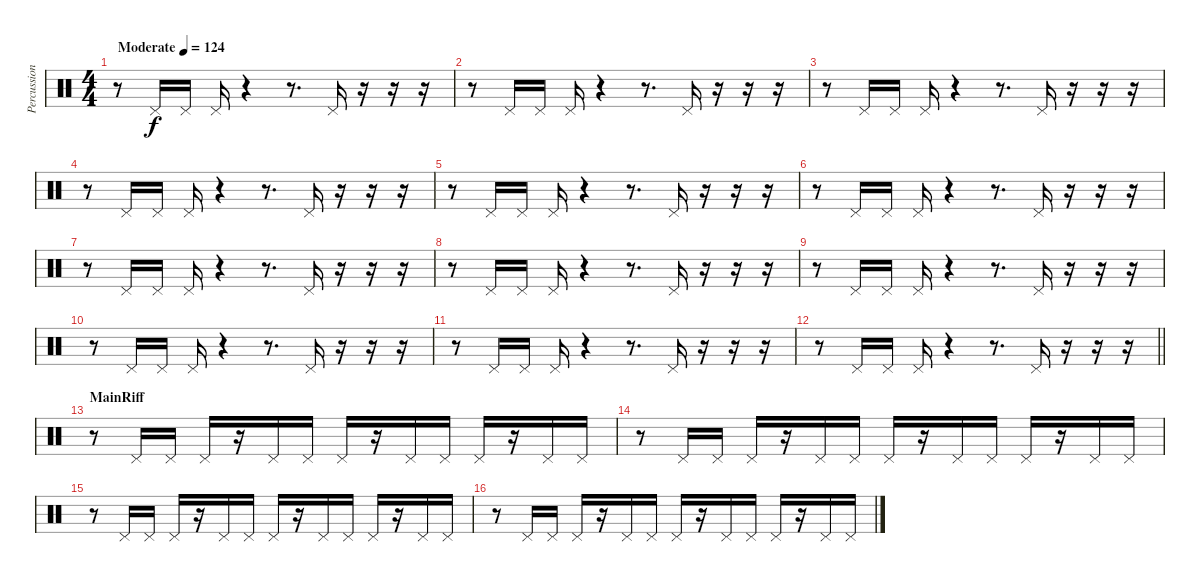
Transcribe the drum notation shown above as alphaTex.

\track ("Percussion" "Percussion") {instrument percussion}
\staff {score}
\articulation defaults
\ts (4 4)
\tempo (124 "Moderate")
\clef neutral
\ks c
r.8{dy f} "Pedal Hi-Hat (hit)".16 "Pedal Hi-Hat (hit)".16 "Pedal Hi-Hat (hit)".16 r.4 r.8{d} "Pedal Hi-Hat (hit)".16 r.16 r.16 r.16 |
r.8 "Pedal Hi-Hat (hit)".16 "Pedal Hi-Hat (hit)".16 "Pedal Hi-Hat (hit)".16 r.4 r.8{d} "Pedal Hi-Hat (hit)".16 r.16 r.16 r.16 |
r.8 "Pedal Hi-Hat (hit)".16 "Pedal Hi-Hat (hit)".16 "Pedal Hi-Hat (hit)".16 r.4 r.8{d} "Pedal Hi-Hat (hit)".16 r.16 r.16 r.16 |
r.8 "Pedal Hi-Hat (hit)".16 "Pedal Hi-Hat (hit)".16 "Pedal Hi-Hat (hit)".16 r.4 r.8{d} "Pedal Hi-Hat (hit)".16 r.16 r.16 r.16 |
r.8 "Pedal Hi-Hat (hit)".16 "Pedal Hi-Hat (hit)".16 "Pedal Hi-Hat (hit)".16 r.4 r.8{d} "Pedal Hi-Hat (hit)".16 r.16 r.16 r.16 |
r.8 "Pedal Hi-Hat (hit)".16 "Pedal Hi-Hat (hit)".16 "Pedal Hi-Hat (hit)".16 r.4 r.8{d} "Pedal Hi-Hat (hit)".16 r.16 r.16 r.16 |
r.8 "Pedal Hi-Hat (hit)".16 "Pedal Hi-Hat (hit)".16 "Pedal Hi-Hat (hit)".16 r.4 r.8{d} "Pedal Hi-Hat (hit)".16 r.16 r.16 r.16 |
r.8 "Pedal Hi-Hat (hit)".16 "Pedal Hi-Hat (hit)".16 "Pedal Hi-Hat (hit)".16 r.4 r.8{d} "Pedal Hi-Hat (hit)".16 r.16 r.16 r.16 |
r.8 "Pedal Hi-Hat (hit)".16 "Pedal Hi-Hat (hit)".16 "Pedal Hi-Hat (hit)".16 r.4 r.8{d} "Pedal Hi-Hat (hit)".16 r.16 r.16 r.16 |
r.8 "Pedal Hi-Hat (hit)".16 "Pedal Hi-Hat (hit)".16 "Pedal Hi-Hat (hit)".16 r.4 r.8{d} "Pedal Hi-Hat (hit)".16 r.16 r.16 r.16 |
r.8 "Pedal Hi-Hat (hit)".16 "Pedal Hi-Hat (hit)".16 "Pedal Hi-Hat (hit)".16 r.4 r.8{d} "Pedal Hi-Hat (hit)".16 r.16 r.16 r.16 |
\barLineRight lightlight
r.8 "Pedal Hi-Hat (hit)".16 "Pedal Hi-Hat (hit)".16 "Pedal Hi-Hat (hit)".16 r.4 r.8{d} "Pedal Hi-Hat (hit)".16 r.16 r.16 r.16 |
\section ("" "MainRiff")
r.8 "Pedal Hi-Hat (hit)".16 "Pedal Hi-Hat (hit)".16 "Pedal Hi-Hat (hit)".16 r.16 "Pedal Hi-Hat (hit)".16 "Pedal Hi-Hat (hit)".16 "Pedal Hi-Hat (hit)".16 r.16 "Pedal Hi-Hat (hit)".16 "Pedal Hi-Hat (hit)".16 "Pedal Hi-Hat (hit)".16 r.16 "Pedal Hi-Hat (hit)".16 "Pedal Hi-Hat (hit)".16 |
r.8 "Pedal Hi-Hat (hit)".16 "Pedal Hi-Hat (hit)".16 "Pedal Hi-Hat (hit)".16 r.16 "Pedal Hi-Hat (hit)".16 "Pedal Hi-Hat (hit)".16 "Pedal Hi-Hat (hit)".16 r.16 "Pedal Hi-Hat (hit)".16 "Pedal Hi-Hat (hit)".16 "Pedal Hi-Hat (hit)".16 r.16 "Pedal Hi-Hat (hit)".16 "Pedal Hi-Hat (hit)".16 |
r.8 "Pedal Hi-Hat (hit)".16 "Pedal Hi-Hat (hit)".16 "Pedal Hi-Hat (hit)".16 r.16 "Pedal Hi-Hat (hit)".16 "Pedal Hi-Hat (hit)".16 "Pedal Hi-Hat (hit)".16 r.16 "Pedal Hi-Hat (hit)".16 "Pedal Hi-Hat (hit)".16 "Pedal Hi-Hat (hit)".16 r.16 "Pedal Hi-Hat (hit)".16 "Pedal Hi-Hat (hit)".16 |
r.8 "Pedal Hi-Hat (hit)".16 "Pedal Hi-Hat (hit)".16 "Pedal Hi-Hat (hit)".16 r.16 "Pedal Hi-Hat (hit)".16 "Pedal Hi-Hat (hit)".16 "Pedal Hi-Hat (hit)".16 r.16 "Pedal Hi-Hat (hit)".16 "Pedal Hi-Hat (hit)".16 "Pedal Hi-Hat (hit)".16 r.16 "Pedal Hi-Hat (hit)".16 "Pedal Hi-Hat (hit)".16
